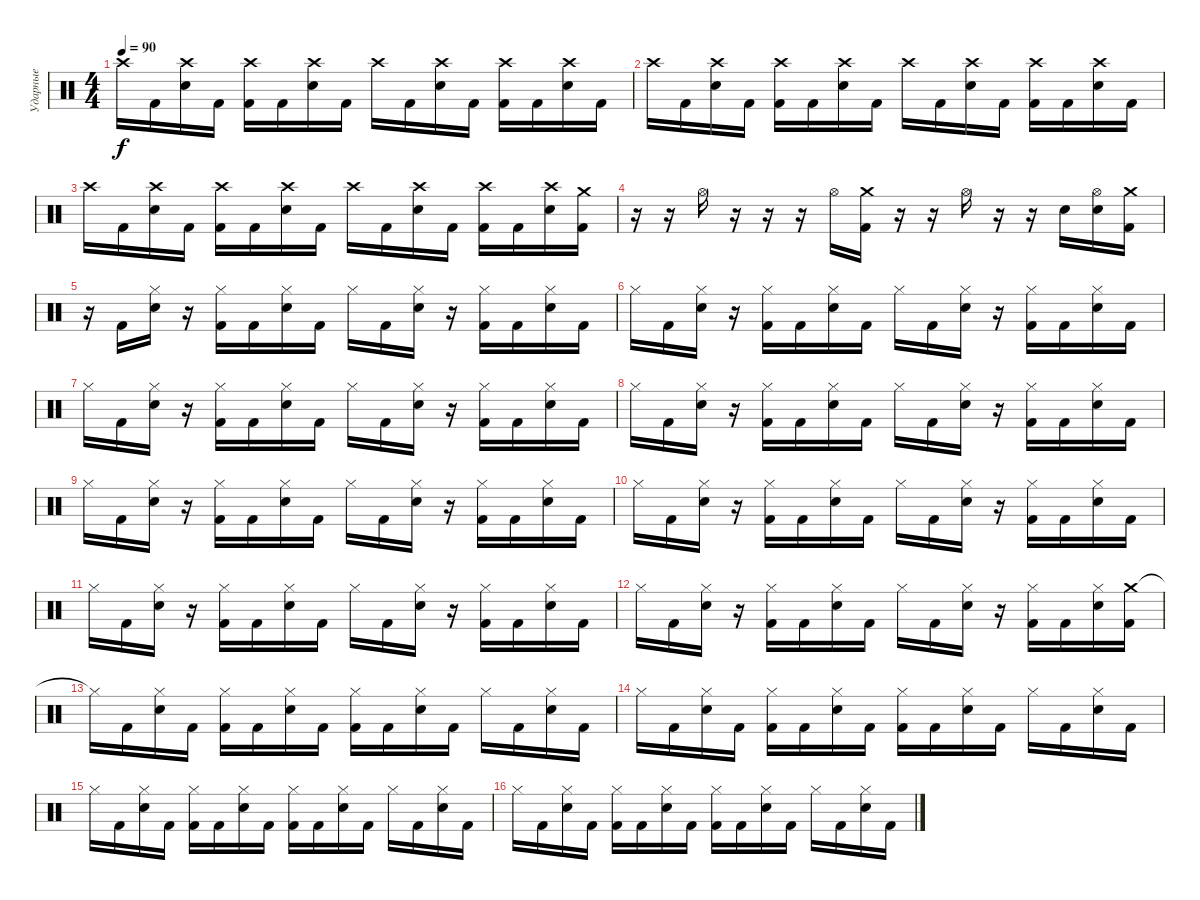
\track ("Ударные" "Ударные") {instrument percussion}
\staff {score}
\articulation defaults
\ts (4 4)
\tempo 90
\clef neutral
\ks c "Crash high (hit)".16{dy f} "Kick (hit) 2".16
("Crash high (hit)" "Electric Snare (hit)").16 "Kick (hit) 2".16 ("Crash high (hit)" "Kick (hit) 2").16 "Kick (hit) 2".16 ("Crash high (hit)" "Electric Snare (hit)").16 "Kick (hit) 2".16 "Crash high (hit)".16 "Kick (hit) 2".16 ("Crash high (hit)" "Electric Snare (hit)").16 "Kick (hit) 2".16 ("Crash high (hit)" "Kick (hit) 2").16 "Kick (hit) 2".16 ("Crash high (hit)" "Electric Snare (hit)").16 "Kick (hit) 2".16 |
"Crash high (hit)".16 "Kick (hit) 2".16 ("Crash high (hit)" "Electric Snare (hit)").16 "Kick (hit) 2".16 ("Crash high (hit)" "Kick (hit) 2").16 "Kick (hit) 2".16 ("Crash high (hit)" "Electric Snare (hit)").16 "Kick (hit) 2".16 "Crash high (hit)".16 "Kick (hit) 2".16 ("Crash high (hit)" "Electric Snare (hit)").16 "Kick (hit) 2".16 ("Crash high (hit)" "Kick (hit) 2").16 "Kick (hit) 2".16 ("Crash high (hit)" "Electric Snare (hit)").16 "Kick (hit) 2".16 |
"Crash high (hit)".16 "Kick (hit) 2".16 ("Crash high (hit)" "Electric Snare (hit)").16 "Kick (hit) 2".16 ("Crash high (hit)" "Kick (hit) 2").16 "Kick (hit) 2".16 ("Crash high (hit)" "Electric Snare (hit)").16 "Kick (hit) 2".16 "Crash high (hit)".16 "Kick (hit) 2".16 ("Crash high (hit)" "Electric Snare (hit)").16 "Kick (hit) 2".16 ("Crash high (hit)" "Kick (hit) 2").16 "Kick (hit) 2".16 ("Crash high (hit)" "Electric Snare (hit)").16 ("Crash medium (hit)" "Kick (hit) 2").16 |
r.16 r.16 "Hi-Hat (open)".16 r.16 r.16 r.16 "Hi-Hat (open)".16 ("Crash medium (hit)" "Kick (hit) 2").16 r.16 r.16 "Hi-Hat (open)".16 r.16 r.16 "Electric Snare (hit)".16 ("Hi-Hat (open)" "Electric Snare (hit)").16 ("Crash medium (hit)" "Kick (hit) 2").16 |
r.16 "Kick (hit) 2".16 ("Hi-Hat (closed)" "Electric Snare (hit)").16 r.16 ("Hi-Hat (closed)" "Kick (hit) 2").16 "Kick (hit) 2".16 ("Hi-Hat (closed)" "Electric Snare (hit)").16 "Kick (hit) 2".16 "Hi-Hat (closed)".16 "Kick (hit) 2".16 ("Hi-Hat (closed)" "Electric Snare (hit)").16 r.16 ("Hi-Hat (closed)" "Kick (hit) 2").16 "Kick (hit) 2".16 ("Hi-Hat (closed)" "Electric Snare (hit)").16 "Kick (hit) 2".16 |
"Hi-Hat (closed)".16 "Kick (hit) 2".16 ("Hi-Hat (closed)" "Electric Snare (hit)").16 r.16 ("Hi-Hat (closed)" "Kick (hit) 2").16 "Kick (hit) 2".16 ("Hi-Hat (closed)" "Electric Snare (hit)").16 "Kick (hit) 2".16 "Hi-Hat (closed)".16 "Kick (hit) 2".16 ("Hi-Hat (closed)" "Electric Snare (hit)").16 r.16 ("Hi-Hat (closed)" "Kick (hit) 2").16 "Kick (hit) 2".16 ("Hi-Hat (closed)" "Electric Snare (hit)").16 "Kick (hit) 2".16 |
"Hi-Hat (closed)".16 "Kick (hit) 2".16 ("Hi-Hat (closed)" "Electric Snare (hit)").16 r.16 ("Hi-Hat (closed)" "Kick (hit) 2").16 "Kick (hit) 2".16 ("Hi-Hat (closed)" "Electric Snare (hit)").16 "Kick (hit) 2".16 "Hi-Hat (closed)".16 "Kick (hit) 2".16 ("Hi-Hat (closed)" "Electric Snare (hit)").16 r.16 ("Hi-Hat (closed)" "Kick (hit) 2").16 "Kick (hit) 2".16 ("Hi-Hat (closed)" "Electric Snare (hit)").16 "Kick (hit) 2".16 |
"Hi-Hat (closed)".16 "Kick (hit) 2".16 ("Hi-Hat (closed)" "Electric Snare (hit)").16 r.16 ("Hi-Hat (closed)" "Kick (hit) 2").16 "Kick (hit) 2".16 ("Hi-Hat (closed)" "Electric Snare (hit)").16 "Kick (hit) 2".16 "Hi-Hat (closed)".16 "Kick (hit) 2".16 ("Hi-Hat (closed)" "Electric Snare (hit)").16 r.16 ("Hi-Hat (closed)" "Kick (hit) 2").16 "Kick (hit) 2".16 ("Hi-Hat (closed)" "Electric Snare (hit)").16 "Kick (hit) 2".16 |
"Hi-Hat (closed)".16 "Kick (hit) 2".16 ("Hi-Hat (closed)" "Electric Snare (hit)").16 r.16 ("Hi-Hat (closed)" "Kick (hit) 2").16 "Kick (hit) 2".16 ("Hi-Hat (closed)" "Electric Snare (hit)").16 "Kick (hit) 2".16 "Hi-Hat (closed)".16 "Kick (hit) 2".16 ("Hi-Hat (closed)" "Electric Snare (hit)").16 r.16 ("Hi-Hat (closed)" "Kick (hit) 2").16 "Kick (hit) 2".16 ("Hi-Hat (closed)" "Electric Snare (hit)").16 "Kick (hit) 2".16 |
"Hi-Hat (closed)".16 "Kick (hit) 2".16 ("Hi-Hat (closed)" "Electric Snare (hit)").16 r.16 ("Hi-Hat (closed)" "Kick (hit) 2").16 "Kick (hit) 2".16 ("Hi-Hat (closed)" "Electric Snare (hit)").16 "Kick (hit) 2".16 "Hi-Hat (closed)".16 "Kick (hit) 2".16 ("Hi-Hat (closed)" "Electric Snare (hit)").16 r.16 ("Hi-Hat (closed)" "Kick (hit) 2").16 "Kick (hit) 2".16 ("Hi-Hat (closed)" "Electric Snare (hit)").16 "Kick (hit) 2".16 |
"Hi-Hat (closed)".16 "Kick (hit) 2".16 ("Hi-Hat (closed)" "Electric Snare (hit)").16 r.16 ("Hi-Hat (closed)" "Kick (hit) 2").16 "Kick (hit) 2".16 ("Hi-Hat (closed)" "Electric Snare (hit)").16 "Kick (hit) 2".16 "Hi-Hat (closed)".16 "Kick (hit) 2".16 ("Hi-Hat (closed)" "Electric Snare (hit)").16 r.16 ("Hi-Hat (closed)" "Kick (hit) 2").16 "Kick (hit) 2".16 ("Hi-Hat (closed)" "Electric Snare (hit)").16 "Kick (hit) 2".16 |
"Hi-Hat (closed)".16 "Kick (hit) 2".16 ("Hi-Hat (closed)" "Electric Snare (hit)").16 r.16 ("Hi-Hat (closed)" "Kick (hit) 2").16 "Kick (hit) 2".16 ("Hi-Hat (closed)" "Electric Snare (hit)").16 "Kick (hit) 2".16 "Hi-Hat (closed)".16 "Kick (hit) 2".16 ("Hi-Hat (closed)" "Electric Snare (hit)").16 r.16 ("Hi-Hat (closed)" "Kick (hit) 2").16 "Kick (hit) 2".16 ("Hi-Hat (closed)" "Electric Snare (hit)").16 ("Crash medium (hit)" "Kick (hit) 2").16 |
"Hi-Hat (closed)"{t}.16 "Kick (hit) 2".16 ("Hi-Hat (closed)" "Electric Snare (hit)").16 "Kick (hit) 2".16 ("Hi-Hat (closed)" "Kick (hit) 2").16 "Kick (hit) 2".16 ("Hi-Hat (closed)" "Electric Snare (hit)").16 "Kick (hit) 2".16 ("Hi-Hat (closed)" "Kick (hit) 2").16 "Kick (hit) 2".16 ("Hi-Hat (closed)" "Electric Snare (hit)").16 "Kick (hit) 2".16 "Hi-Hat (closed)".16 "Kick (hit) 2".16 ("Hi-Hat (closed)" "Electric Snare (hit)").16 "Kick (hit) 2".16 |
"Hi-Hat (closed)".16 "Kick (hit) 2".16 ("Hi-Hat (closed)" "Electric Snare (hit)").16 "Kick (hit) 2".16 ("Hi-Hat (closed)" "Kick (hit) 2").16 "Kick (hit) 2".16 ("Hi-Hat (closed)" "Electric Snare (hit)").16 "Kick (hit) 2".16 ("Hi-Hat (closed)" "Kick (hit) 2").16 "Kick (hit) 2".16 ("Hi-Hat (closed)" "Electric Snare (hit)").16 "Kick (hit) 2".16 "Hi-Hat (closed)".16 "Kick (hit) 2".16 ("Hi-Hat (closed)" "Electric Snare (hit)").16 "Kick (hit) 2".16 |
"Hi-Hat (closed)".16 "Kick (hit) 2".16 ("Hi-Hat (closed)" "Electric Snare (hit)").16 "Kick (hit) 2".16 ("Hi-Hat (closed)" "Kick (hit) 2").16 "Kick (hit) 2".16 ("Hi-Hat (closed)" "Electric Snare (hit)").16 "Kick (hit) 2".16 ("Hi-Hat (closed)" "Kick (hit) 2").16 "Kick (hit) 2".16 ("Hi-Hat (closed)" "Electric Snare (hit)").16 "Kick (hit) 2".16 "Hi-Hat (closed)".16 "Kick (hit) 2".16 ("Hi-Hat (closed)" "Electric Snare (hit)").16 "Kick (hit) 2".16 |
"Hi-Hat (closed)".16 "Kick (hit) 2".16 ("Hi-Hat (closed)" "Electric Snare (hit)").16 "Kick (hit) 2".16 ("Hi-Hat (closed)" "Kick (hit) 2").16 "Kick (hit) 2".16 ("Hi-Hat (closed)" "Electric Snare (hit)").16 "Kick (hit) 2".16 ("Hi-Hat (closed)" "Kick (hit) 2").16 "Kick (hit) 2".16 ("Hi-Hat (closed)" "Electric Snare (hit)").16 "Kick (hit) 2".16 "Hi-Hat (closed)".16 "Kick (hit) 2".16 ("Hi-Hat (closed)" "Electric Snare (hit)").16 "Kick (hit) 2".16
